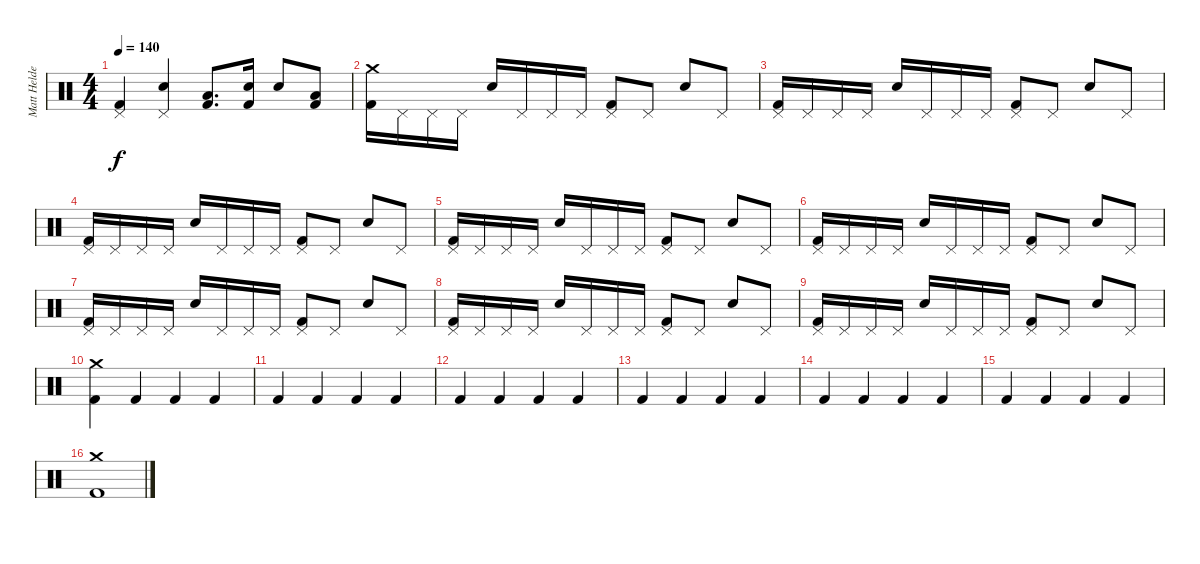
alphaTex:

\track ("Matt Helders" "Matt Helde") {instrument percussion}
\staff {score}
\articulation defaults
\ts (4 4)
\tempo 140
\clef neutral
\ks c
("Pedal Hi-Hat (hit)" "Kick (hit) 2").4{dy f} ("Pedal Hi-Hat (hit)" "Snare (hit) 2").4 ("Low Tom (hit)" "Kick (hit) 2").8{d} ("Snare (hit) 2" "Kick (hit) 2").16 "Snare (hit) 2".8 ("Low Tom (hit)" "Kick (hit) 2").8 |
("Crash medium (hit)" "Kick (hit) 2").16 "Pedal Hi-Hat (hit)".16 "Pedal Hi-Hat (hit)".16 "Pedal Hi-Hat (hit)".16 "Snare (hit) 2".16 "Pedal Hi-Hat (hit)".16 "Pedal Hi-Hat (hit)".16 "Pedal Hi-Hat (hit)".16 ("Pedal Hi-Hat (hit)" "Kick (hit) 2").8 "Pedal Hi-Hat (hit)".8 "Snare (hit) 2".8 "Pedal Hi-Hat (hit)".8 |
("Pedal Hi-Hat (hit)" "Kick (hit) 2").16 "Pedal Hi-Hat (hit)".16 "Pedal Hi-Hat (hit)".16 "Pedal Hi-Hat (hit)".16 "Snare (hit) 2".16 "Pedal Hi-Hat (hit)".16 "Pedal Hi-Hat (hit)".16 "Pedal Hi-Hat (hit)".16 ("Pedal Hi-Hat (hit)" "Kick (hit) 2").8 "Pedal Hi-Hat (hit)".8 "Snare (hit) 2".8 "Pedal Hi-Hat (hit)".8 |
("Pedal Hi-Hat (hit)" "Kick (hit) 2").16 "Pedal Hi-Hat (hit)".16 "Pedal Hi-Hat (hit)".16 "Pedal Hi-Hat (hit)".16 "Snare (hit) 2".16 "Pedal Hi-Hat (hit)".16 "Pedal Hi-Hat (hit)".16 "Pedal Hi-Hat (hit)".16 ("Pedal Hi-Hat (hit)" "Kick (hit) 2").8 "Pedal Hi-Hat (hit)".8 "Snare (hit) 2".8 "Pedal Hi-Hat (hit)".8 |
("Pedal Hi-Hat (hit)" "Kick (hit) 2").16 "Pedal Hi-Hat (hit)".16 "Pedal Hi-Hat (hit)".16 "Pedal Hi-Hat (hit)".16 "Snare (hit) 2".16 "Pedal Hi-Hat (hit)".16 "Pedal Hi-Hat (hit)".16 "Pedal Hi-Hat (hit)".16 ("Pedal Hi-Hat (hit)" "Kick (hit) 2").8 "Pedal Hi-Hat (hit)".8 "Snare (hit) 2".8 "Pedal Hi-Hat (hit)".8 |
("Pedal Hi-Hat (hit)" "Kick (hit) 2").16 "Pedal Hi-Hat (hit)".16 "Pedal Hi-Hat (hit)".16 "Pedal Hi-Hat (hit)".16 "Snare (hit) 2".16 "Pedal Hi-Hat (hit)".16 "Pedal Hi-Hat (hit)".16 "Pedal Hi-Hat (hit)".16 ("Pedal Hi-Hat (hit)" "Kick (hit) 2").8 "Pedal Hi-Hat (hit)".8 "Snare (hit) 2".8 "Pedal Hi-Hat (hit)".8 |
("Pedal Hi-Hat (hit)" "Kick (hit) 2").16 "Pedal Hi-Hat (hit)".16 "Pedal Hi-Hat (hit)".16 "Pedal Hi-Hat (hit)".16 "Snare (hit) 2".16 "Pedal Hi-Hat (hit)".16 "Pedal Hi-Hat (hit)".16 "Pedal Hi-Hat (hit)".16 ("Pedal Hi-Hat (hit)" "Kick (hit) 2").8 "Pedal Hi-Hat (hit)".8 "Snare (hit) 2".8 "Pedal Hi-Hat (hit)".8 |
("Pedal Hi-Hat (hit)" "Kick (hit) 2").16 "Pedal Hi-Hat (hit)".16 "Pedal Hi-Hat (hit)".16 "Pedal Hi-Hat (hit)".16 "Snare (hit) 2".16 "Pedal Hi-Hat (hit)".16 "Pedal Hi-Hat (hit)".16 "Pedal Hi-Hat (hit)".16 ("Pedal Hi-Hat (hit)" "Kick (hit) 2").8 "Pedal Hi-Hat (hit)".8 "Snare (hit) 2".8 "Pedal Hi-Hat (hit)".8 |
("Pedal Hi-Hat (hit)" "Kick (hit) 2").16 "Pedal Hi-Hat (hit)".16 "Pedal Hi-Hat (hit)".16 "Pedal Hi-Hat (hit)".16 "Snare (hit) 2".16 "Pedal Hi-Hat (hit)".16 "Pedal Hi-Hat (hit)".16 "Pedal Hi-Hat (hit)".16 ("Pedal Hi-Hat (hit)" "Kick (hit) 2").8 "Pedal Hi-Hat (hit)".8 "Snare (hit) 2".8 "Pedal Hi-Hat (hit)".8 |
("Crash medium (hit)" "Kick (hit) 2").4 "Kick (hit) 2".4 "Kick (hit) 2".4 "Kick (hit) 2".4 |
"Kick (hit) 2".4 "Kick (hit) 2".4 "Kick (hit) 2".4 "Kick (hit) 2".4 |
"Kick (hit) 2".4 "Kick (hit) 2".4 "Kick (hit) 2".4 "Kick (hit) 2".4 |
"Kick (hit) 2".4 "Kick (hit) 2".4 "Kick (hit) 2".4 "Kick (hit) 2".4 |
"Kick (hit) 2".4 "Kick (hit) 2".4 "Kick (hit) 2".4 "Kick (hit) 2".4 |
"Kick (hit) 2".4 "Kick (hit) 2".4 "Kick (hit) 2".4 "Kick (hit) 2".4 |
("Crash medium (hit)" "Kick (hit) 2").1
